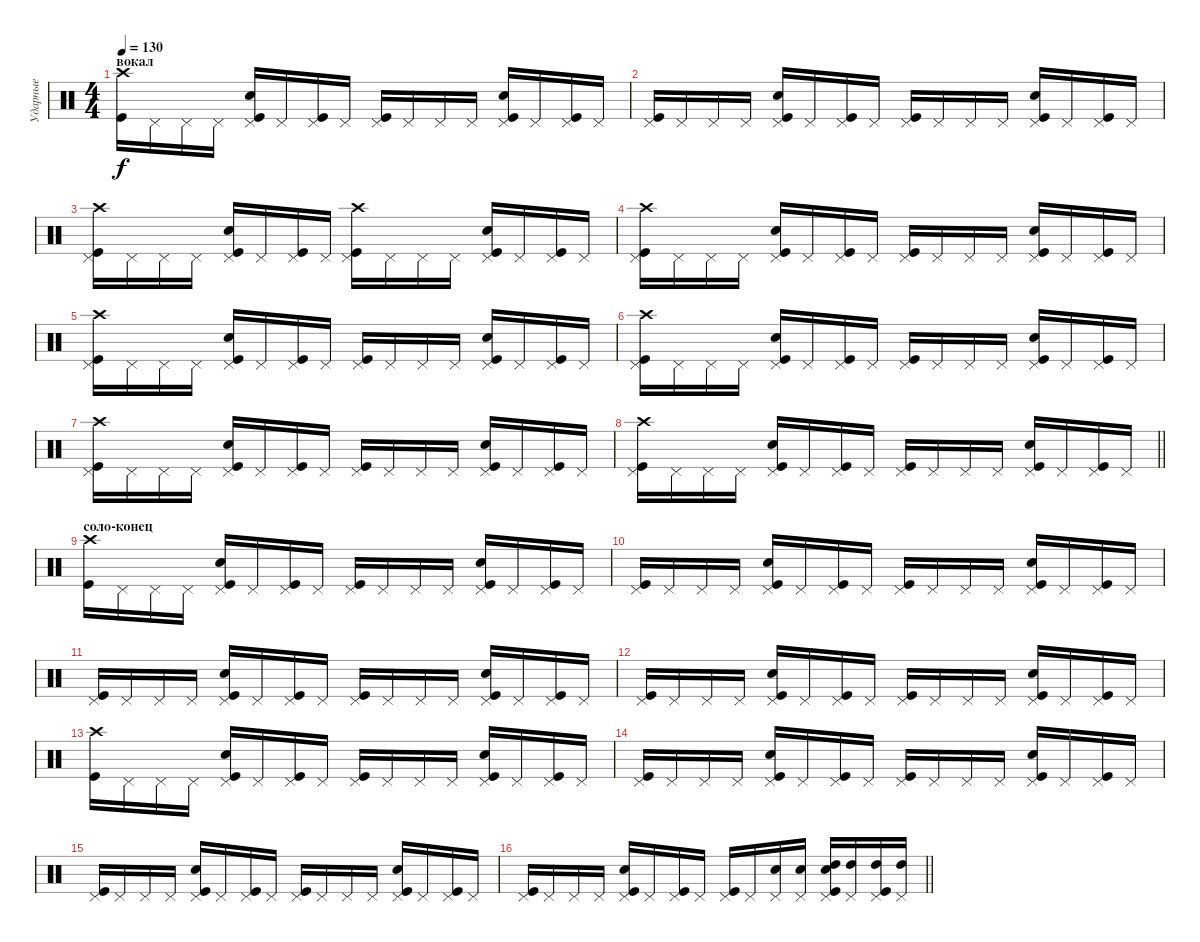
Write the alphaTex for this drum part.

\track ("Ударные" "Ударные") {instrument percussion}
\staff {score}
\articulation defaults
\ts (4 4)
\section ("" "вокал")
\tempo 130
\clef neutral
\ks c
("Crash high (hit)" "Kick (hit)").16{dy f} "Pedal Hi-Hat (hit)".16 "Pedal Hi-Hat (hit)".16 "Pedal Hi-Hat (hit)".16 ("Pedal Hi-Hat (hit)" "Kick (hit)" "Snare (hit) 2").16 "Pedal Hi-Hat (hit)".16 ("Pedal Hi-Hat (hit)" "Kick (hit)").16 "Pedal Hi-Hat (hit)".16 ("Pedal Hi-Hat (hit)" "Kick (hit)").16 "Pedal Hi-Hat (hit)".16 "Pedal Hi-Hat (hit)".16 "Pedal Hi-Hat (hit)".16 ("Pedal Hi-Hat (hit)" "Kick (hit)" "Snare (hit) 2").16 "Pedal Hi-Hat (hit)".16 ("Pedal Hi-Hat (hit)" "Kick (hit)").16 "Pedal Hi-Hat (hit)".16 |
("Pedal Hi-Hat (hit)" "Kick (hit)").16 "Pedal Hi-Hat (hit)".16 "Pedal Hi-Hat (hit)".16 "Pedal Hi-Hat (hit)".16 ("Pedal Hi-Hat (hit)" "Kick (hit)" "Snare (hit) 2").16 "Pedal Hi-Hat (hit)".16 ("Pedal Hi-Hat (hit)" "Kick (hit)").16 "Pedal Hi-Hat (hit)".16 ("Pedal Hi-Hat (hit)" "Kick (hit)").16 "Pedal Hi-Hat (hit)".16 "Pedal Hi-Hat (hit)".16 "Pedal Hi-Hat (hit)".16 ("Pedal Hi-Hat (hit)" "Kick (hit)" "Snare (hit) 2").16 "Pedal Hi-Hat (hit)".16 ("Pedal Hi-Hat (hit)" "Kick (hit)").16 "Pedal Hi-Hat (hit)".16 |
("Pedal Hi-Hat (hit)" "Kick (hit)" "Crash high (hit)").16 "Pedal Hi-Hat (hit)".16 "Pedal Hi-Hat (hit)".16 "Pedal Hi-Hat (hit)".16 ("Pedal Hi-Hat (hit)" "Kick (hit)" "Snare (hit) 2").16 "Pedal Hi-Hat (hit)".16 ("Pedal Hi-Hat (hit)" "Kick (hit)").16 "Pedal Hi-Hat (hit)".16 ("Pedal Hi-Hat (hit)" "Kick (hit)" "Crash high (hit)").16 "Pedal Hi-Hat (hit)".16 "Pedal Hi-Hat (hit)".16 "Pedal Hi-Hat (hit)".16 ("Pedal Hi-Hat (hit)" "Kick (hit)" "Snare (hit) 2").16 "Pedal Hi-Hat (hit)".16 ("Pedal Hi-Hat (hit)" "Kick (hit)").16 "Pedal Hi-Hat (hit)".16 |
("Pedal Hi-Hat (hit)" "Kick (hit)" "Crash high (hit)").16 "Pedal Hi-Hat (hit)".16 "Pedal Hi-Hat (hit)".16 "Pedal Hi-Hat (hit)".16 ("Pedal Hi-Hat (hit)" "Kick (hit)" "Snare (hit) 2").16 "Pedal Hi-Hat (hit)".16 ("Pedal Hi-Hat (hit)" "Kick (hit)").16 "Pedal Hi-Hat (hit)".16 ("Pedal Hi-Hat (hit)" "Kick (hit)").16 "Pedal Hi-Hat (hit)".16 "Pedal Hi-Hat (hit)".16 "Pedal Hi-Hat (hit)".16 ("Pedal Hi-Hat (hit)" "Kick (hit)" "Snare (hit) 2").16 "Pedal Hi-Hat (hit)".16 ("Pedal Hi-Hat (hit)" "Kick (hit)").16 "Pedal Hi-Hat (hit)".16 |
("Pedal Hi-Hat (hit)" "Kick (hit)" "Crash high (hit)").16 "Pedal Hi-Hat (hit)".16 "Pedal Hi-Hat (hit)".16 "Pedal Hi-Hat (hit)".16 ("Pedal Hi-Hat (hit)" "Kick (hit)" "Snare (hit) 2").16 "Pedal Hi-Hat (hit)".16 ("Pedal Hi-Hat (hit)" "Kick (hit)").16 "Pedal Hi-Hat (hit)".16 ("Pedal Hi-Hat (hit)" "Kick (hit)").16 "Pedal Hi-Hat (hit)".16 "Pedal Hi-Hat (hit)".16 "Pedal Hi-Hat (hit)".16 ("Pedal Hi-Hat (hit)" "Kick (hit)" "Snare (hit) 2").16 "Pedal Hi-Hat (hit)".16 ("Pedal Hi-Hat (hit)" "Kick (hit)").16 "Pedal Hi-Hat (hit)".16 |
("Pedal Hi-Hat (hit)" "Kick (hit)" "Crash high (hit)").16 "Pedal Hi-Hat (hit)".16 "Pedal Hi-Hat (hit)".16 "Pedal Hi-Hat (hit)".16 ("Pedal Hi-Hat (hit)" "Kick (hit)" "Snare (hit) 2").16 "Pedal Hi-Hat (hit)".16 ("Pedal Hi-Hat (hit)" "Kick (hit)").16 "Pedal Hi-Hat (hit)".16 ("Pedal Hi-Hat (hit)" "Kick (hit)").16 "Pedal Hi-Hat (hit)".16 "Pedal Hi-Hat (hit)".16 "Pedal Hi-Hat (hit)".16 ("Pedal Hi-Hat (hit)" "Kick (hit)" "Snare (hit) 2").16 "Pedal Hi-Hat (hit)".16 ("Pedal Hi-Hat (hit)" "Kick (hit)").16 "Pedal Hi-Hat (hit)".16 |
("Pedal Hi-Hat (hit)" "Kick (hit)" "Crash high (hit)").16 "Pedal Hi-Hat (hit)".16 "Pedal Hi-Hat (hit)".16 "Pedal Hi-Hat (hit)".16 ("Pedal Hi-Hat (hit)" "Kick (hit)" "Snare (hit) 2").16 "Pedal Hi-Hat (hit)".16 ("Pedal Hi-Hat (hit)" "Kick (hit)").16 "Pedal Hi-Hat (hit)".16 ("Pedal Hi-Hat (hit)" "Kick (hit)").16 "Pedal Hi-Hat (hit)".16 "Pedal Hi-Hat (hit)".16 "Pedal Hi-Hat (hit)".16 ("Pedal Hi-Hat (hit)" "Kick (hit)" "Snare (hit) 2").16 "Pedal Hi-Hat (hit)".16 ("Pedal Hi-Hat (hit)" "Kick (hit)").16 "Pedal Hi-Hat (hit)".16 |
\barLineRight lightlight
("Pedal Hi-Hat (hit)" "Kick (hit)" "Crash high (hit)").16 "Pedal Hi-Hat (hit)".16 "Pedal Hi-Hat (hit)".16 "Pedal Hi-Hat (hit)".16 ("Pedal Hi-Hat (hit)" "Kick (hit)" "Snare (hit) 2").16 "Pedal Hi-Hat (hit)".16 ("Pedal Hi-Hat (hit)" "Kick (hit)").16 "Pedal Hi-Hat (hit)".16 ("Pedal Hi-Hat (hit)" "Kick (hit)").16 "Pedal Hi-Hat (hit)".16 "Pedal Hi-Hat (hit)".16 "Pedal Hi-Hat (hit)".16 ("Pedal Hi-Hat (hit)" "Kick (hit)" "Snare (hit) 2").16 "Pedal Hi-Hat (hit)".16 ("Pedal Hi-Hat (hit)" "Kick (hit)").16 "Pedal Hi-Hat (hit)".16 |
\section ("" "соло-конец")
("Crash high (hit)" "Kick (hit)").16 "Pedal Hi-Hat (hit)".16 "Pedal Hi-Hat (hit)".16 "Pedal Hi-Hat (hit)".16 ("Pedal Hi-Hat (hit)" "Kick (hit)" "Snare (hit) 2").16 "Pedal Hi-Hat (hit)".16 ("Pedal Hi-Hat (hit)" "Kick (hit)").16 "Pedal Hi-Hat (hit)".16 ("Pedal Hi-Hat (hit)" "Kick (hit)").16 "Pedal Hi-Hat (hit)".16 "Pedal Hi-Hat (hit)".16 "Pedal Hi-Hat (hit)".16 ("Pedal Hi-Hat (hit)" "Kick (hit)" "Snare (hit) 2").16 "Pedal Hi-Hat (hit)".16 ("Pedal Hi-Hat (hit)" "Kick (hit)").16 "Pedal Hi-Hat (hit)".16 |
("Pedal Hi-Hat (hit)" "Kick (hit)").16 "Pedal Hi-Hat (hit)".16 "Pedal Hi-Hat (hit)".16 "Pedal Hi-Hat (hit)".16 ("Pedal Hi-Hat (hit)" "Kick (hit)" "Snare (hit) 2").16 "Pedal Hi-Hat (hit)".16 ("Pedal Hi-Hat (hit)" "Kick (hit)").16 "Pedal Hi-Hat (hit)".16 ("Pedal Hi-Hat (hit)" "Kick (hit)").16 "Pedal Hi-Hat (hit)".16 "Pedal Hi-Hat (hit)".16 "Pedal Hi-Hat (hit)".16 ("Pedal Hi-Hat (hit)" "Kick (hit)" "Snare (hit) 2").16 "Pedal Hi-Hat (hit)".16 ("Pedal Hi-Hat (hit)" "Kick (hit)").16 "Pedal Hi-Hat (hit)".16 |
("Pedal Hi-Hat (hit)" "Kick (hit)").16 "Pedal Hi-Hat (hit)".16 "Pedal Hi-Hat (hit)".16 "Pedal Hi-Hat (hit)".16 ("Pedal Hi-Hat (hit)" "Kick (hit)" "Snare (hit) 2").16 "Pedal Hi-Hat (hit)".16 ("Pedal Hi-Hat (hit)" "Kick (hit)").16 "Pedal Hi-Hat (hit)".16 ("Pedal Hi-Hat (hit)" "Kick (hit)").16 "Pedal Hi-Hat (hit)".16 "Pedal Hi-Hat (hit)".16 "Pedal Hi-Hat (hit)".16 ("Pedal Hi-Hat (hit)" "Kick (hit)" "Snare (hit) 2").16 "Pedal Hi-Hat (hit)".16 ("Pedal Hi-Hat (hit)" "Kick (hit)").16 "Pedal Hi-Hat (hit)".16 |
("Pedal Hi-Hat (hit)" "Kick (hit)").16 "Pedal Hi-Hat (hit)".16 "Pedal Hi-Hat (hit)".16 "Pedal Hi-Hat (hit)".16 ("Pedal Hi-Hat (hit)" "Kick (hit)" "Snare (hit) 2").16 "Pedal Hi-Hat (hit)".16 ("Pedal Hi-Hat (hit)" "Kick (hit)").16 "Pedal Hi-Hat (hit)".16 ("Pedal Hi-Hat (hit)" "Kick (hit)").16 "Pedal Hi-Hat (hit)".16 "Pedal Hi-Hat (hit)".16 "Pedal Hi-Hat (hit)".16 ("Pedal Hi-Hat (hit)" "Kick (hit)" "Snare (hit) 2").16 "Pedal Hi-Hat (hit)".16 ("Pedal Hi-Hat (hit)" "Kick (hit)").16 "Pedal Hi-Hat (hit)".16 |
("Crash high (hit)" "Kick (hit)").16 "Pedal Hi-Hat (hit)".16 "Pedal Hi-Hat (hit)".16 "Pedal Hi-Hat (hit)".16 ("Pedal Hi-Hat (hit)" "Kick (hit)" "Snare (hit) 2").16 "Pedal Hi-Hat (hit)".16 ("Pedal Hi-Hat (hit)" "Kick (hit)").16 "Pedal Hi-Hat (hit)".16 ("Pedal Hi-Hat (hit)" "Kick (hit)").16 "Pedal Hi-Hat (hit)".16 "Pedal Hi-Hat (hit)".16 "Pedal Hi-Hat (hit)".16 ("Pedal Hi-Hat (hit)" "Kick (hit)" "Snare (hit) 2").16 "Pedal Hi-Hat (hit)".16 ("Pedal Hi-Hat (hit)" "Kick (hit)").16 "Pedal Hi-Hat (hit)".16 |
("Pedal Hi-Hat (hit)" "Kick (hit)").16 "Pedal Hi-Hat (hit)".16 "Pedal Hi-Hat (hit)".16 "Pedal Hi-Hat (hit)".16 ("Pedal Hi-Hat (hit)" "Kick (hit)" "Snare (hit) 2").16 "Pedal Hi-Hat (hit)".16 ("Pedal Hi-Hat (hit)" "Kick (hit)").16 "Pedal Hi-Hat (hit)".16 ("Pedal Hi-Hat (hit)" "Kick (hit)").16 "Pedal Hi-Hat (hit)".16 "Pedal Hi-Hat (hit)".16 "Pedal Hi-Hat (hit)".16 ("Pedal Hi-Hat (hit)" "Kick (hit)" "Snare (hit) 2").16 "Pedal Hi-Hat (hit)".16 ("Pedal Hi-Hat (hit)" "Kick (hit)").16 "Pedal Hi-Hat (hit)".16 |
("Pedal Hi-Hat (hit)" "Kick (hit)").16 "Pedal Hi-Hat (hit)".16 "Pedal Hi-Hat (hit)".16 "Pedal Hi-Hat (hit)".16 ("Pedal Hi-Hat (hit)" "Kick (hit)" "Snare (hit) 2").16 "Pedal Hi-Hat (hit)".16 ("Pedal Hi-Hat (hit)" "Kick (hit)").16 "Pedal Hi-Hat (hit)".16 ("Pedal Hi-Hat (hit)" "Kick (hit)").16 "Pedal Hi-Hat (hit)".16 "Pedal Hi-Hat (hit)".16 "Pedal Hi-Hat (hit)".16 ("Pedal Hi-Hat (hit)" "Kick (hit)" "Snare (hit) 2").16 "Pedal Hi-Hat (hit)".16 ("Pedal Hi-Hat (hit)" "Kick (hit)").16 "Pedal Hi-Hat (hit)".16 |
\barLineRight lightlight
("Pedal Hi-Hat (hit)" "Kick (hit)").16 "Pedal Hi-Hat (hit)".16 "Pedal Hi-Hat (hit)".16 "Pedal Hi-Hat (hit)".16 ("Pedal Hi-Hat (hit)" "Kick (hit)" "Snare (hit) 2").16 "Pedal Hi-Hat (hit)".16 ("Pedal Hi-Hat (hit)" "Kick (hit)").16 "Pedal Hi-Hat (hit)".16 ("Pedal Hi-Hat (hit)" "Kick (hit)").16 "Pedal Hi-Hat (hit)".16 ("Pedal Hi-Hat (hit)" "Snare (hit) 2").16 ("Pedal Hi-Hat (hit)" "Snare (hit) 2").16 ("Pedal Hi-Hat (hit)" "Kick (hit)" "Snare (hit) 2" "High Tom (hit)").16 ("Pedal Hi-Hat (hit)" "High Tom (hit)").16 ("Pedal Hi-Hat (hit)" "Kick (hit)" "High Tom (hit)").16 ("Pedal Hi-Hat (hit)" "High Tom (hit)").16
